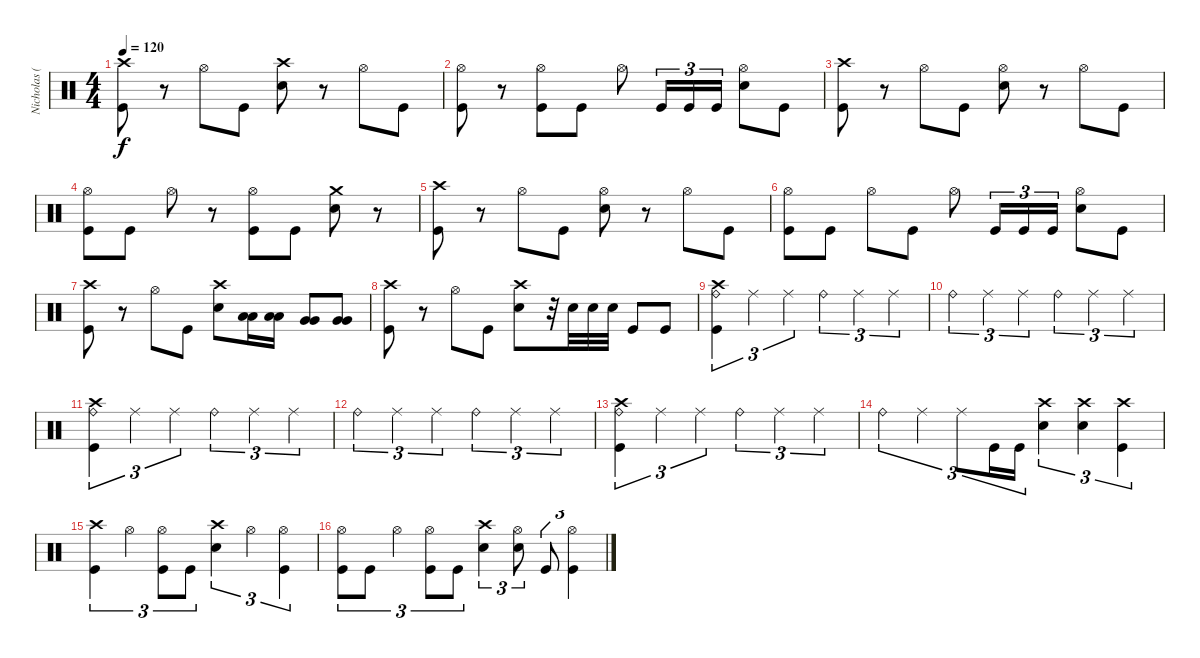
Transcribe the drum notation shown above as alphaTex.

\track ("Nicholas (Drums)" "Nicholas (") {instrument percussion}
\staff {score}
\articulation defaults
\ts (4 4)
\tempo 120
\clef neutral
\ks c
("Crash high (hit)" "Kick (hit)").8{dy f} r.8 "Hi-Hat (open)".8 "Kick (hit)".8 ("Crash high (hit)" "Electric Snare (hit)").8 r.8 "Hi-Hat (open)".8 "Kick (hit)".8 |
("Hi-Hat (open)" "Kick (hit)").8 r.8 ("Hi-Hat (open)" "Kick (hit)").8 "Kick (hit)".8 "Hi-Hat (open)".8 "Kick (hit)".16{tu (3 2)} "Kick (hit)".16{tu (3 2)} "Kick (hit)".16{tu (3 2)} ("Hi-Hat (open)" "Electric Snare (hit)").8 "Kick (hit)".8 |
("Crash high (hit)" "Kick (hit)").8 r.8 "Hi-Hat (open)".8 "Kick (hit)".8 ("Hi-Hat (open)" "Electric Snare (hit)").8 r.8 "Hi-Hat (open)".8 "Kick (hit)".8 |
("Hi-Hat (open)" "Kick (hit)").8 "Kick (hit)".8 "Hi-Hat (open)".8 r.8 ("Hi-Hat (open)" "Kick (hit)").8 "Kick (hit)".8 ("Crash medium (hit)" "Electric Snare (hit)").8 r.8 |
("Crash high (hit)" "Kick (hit)").8 r.8 "Hi-Hat (open)".8 "Kick (hit)".8 ("Hi-Hat (open)" "Electric Snare (hit)").8 r.8 "Hi-Hat (open)".8 "Kick (hit)".8 |
("Hi-Hat (open)" "Kick (hit)").8 "Kick (hit)".8 "Hi-Hat (open)".8 "Kick (hit)".8 "Hi-Hat (open)".8 "Kick (hit)".16{tu (3 2)} "Kick (hit)".16{tu (3 2)} "Kick (hit)".16{tu (3 2)} ("Hi-Hat (open)" "Electric Snare (hit)").8 "Kick (hit)".8 |
("Crash high (hit)" "Kick (hit)").8 r.8 "Hi-Hat (open)".8 "Kick (hit)".8 ("Crash high (hit)" "Electric Snare (hit)").8 ("Low Tom (hit)" "Low Tom (hit)").16 ("Low Tom (hit)" "Low Tom (hit)").16 ("Very Low Tom (hit)" "Very Low Tom (hit)").8 ("Very Low Tom (hit)" "Very Low Tom (hit)").8 |
("Crash high (hit)" "Kick (hit)").8 r.8 "Hi-Hat (open)".8 "Kick (hit)".8 ("Crash high (hit)" "Electric Snare (hit)").8 r.32 "Electric Snare (hit)".32 "Electric Snare (hit)".32 "Electric Snare (hit)".32 "Kick (hit)".8 "Kick (hit)".8 |
("Crash high (hit)" "Ride (bell)" "Kick (hit)").4{tu (3 2)} "Ride (middle)".4{tu (3 2)} "Ride (middle)".4{tu (3 2)} "Ride (bell)".4{tu (3 2)} "Ride (middle)".4{tu (3 2)} "Ride (middle)".4{tu (3 2)} |
"Ride (bell)".4{tu (3 2)} "Ride (middle)".4{tu (3 2)} "Ride (middle)".4{tu (3 2)} "Ride (bell)".4{tu (3 2)} "Ride (middle)".4{tu (3 2)} "Ride (middle)".4{tu (3 2)} |
("Crash high (hit)" "Ride (bell)" "Kick (hit)").4{tu (3 2)} "Ride (middle)".4{tu (3 2)} "Ride (middle)".4{tu (3 2)} "Ride (bell)".4{tu (3 2)} "Ride (middle)".4{tu (3 2)} "Ride (middle)".4{tu (3 2)} |
"Ride (bell)".4{tu (3 2)} "Ride (middle)".4{tu (3 2)} "Ride (middle)".4{tu (3 2)} "Ride (bell)".4{tu (3 2)} "Ride (middle)".4{tu (3 2)} "Ride (middle)".4{tu (3 2)} |
("Crash high (hit)" "Ride (bell)" "Kick (hit)").4{tu (3 2)} "Ride (middle)".4{tu (3 2)} "Ride (middle)".4{tu (3 2)} "Ride (bell)".4{tu (3 2)} "Ride (middle)".4{tu (3 2)} "Ride (middle)".4{tu (3 2)} |
"Ride (bell)".4{tu (3 2)} "Ride (middle)".4{tu (3 2)} "Ride (middle)".8{tu (3 2)} "Kick (hit)".16{tu (3 2)} "Kick (hit)".16{tu (3 2)} ("Crash high (hit)" "Electric Snare (hit)").4{tu (3 2)} ("Crash high (hit)" "Electric Snare (hit)").4{tu (3 2)} ("Crash high (hit)" "Kick (hit)").4{tu (3 2)} |
("Crash high (hit)" "Kick (hit)").4{tu (3 2)} "Hi-Hat (open)".4{tu (3 2)} ("Hi-Hat (open)" "Kick (hit)").8{tu (3 2)} "Kick (hit)".8{tu (3 2)} ("Crash high (hit)" "Electric Snare (hit)").4{tu (3 2)} "Hi-Hat (open)".4{tu (3 2)} ("Hi-Hat (open)" "Kick (hit)").4{tu (3 2)} |
("Hi-Hat (open)" "Kick (hit)").8{tu (3 2)} "Kick (hit)".8{tu (3 2)} "Hi-Hat (open)".4{tu (3 2)} ("Hi-Hat (open)" "Kick (hit)").8{tu (3 2)} "Kick (hit)".8{tu (3 2)} ("Crash high (hit)" "Electric Snare (hit)").4{tu (3 2)} ("Hi-Hat (open)" "Electric Snare (hit)").8{tu (3 2)} "Kick (hit)".8{tu (3 2)} ("Hi-Hat (open)" "Kick (hit)").4{tu (3 2)}
